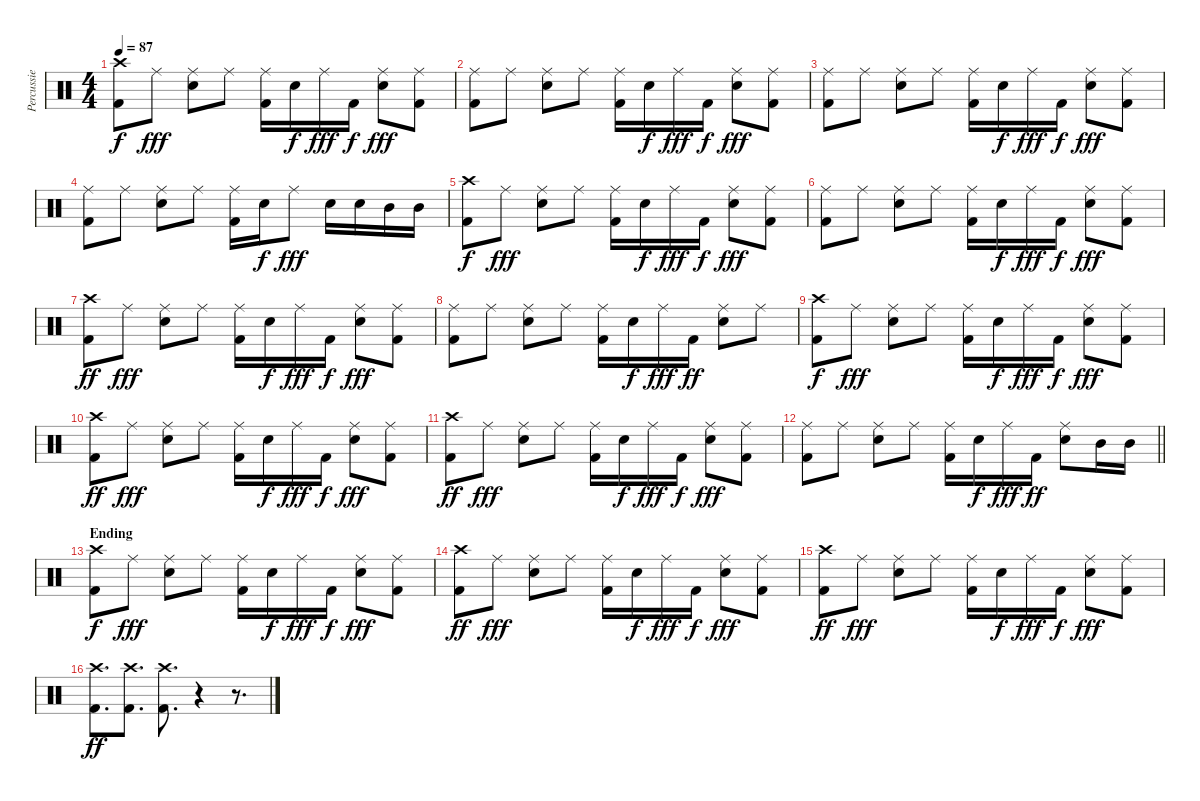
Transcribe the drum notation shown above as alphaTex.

\track ("Percussie" "Percussie") {instrument percussion}
\staff {score}
\articulation defaults
\ts (4 4)
\tempo 87
\clef neutral
\ks c
("Crash high (hit)" "Kick (hit) 2").8{dy f} "Ride (middle)".8{dy fff} ("Ride (middle)" "Snare (hit) 2").8 "Ride (middle)".8 ("Ride (middle)" "Kick (hit) 2").16 "Snare (hit) 2".16{dy f} "Ride (middle)".16{dy fff} "Kick (hit) 2".16{dy f} ("Ride (middle)" "Snare (hit) 2").8{dy fff} ("Ride (middle)" "Kick (hit) 2").8 |
("Ride (middle)" "Kick (hit) 2").8 "Ride (middle)".8 ("Ride (middle)" "Snare (hit) 2").8 "Ride (middle)".8 ("Ride (middle)" "Kick (hit) 2").16 "Snare (hit) 2".16{dy f} "Ride (middle)".16{dy fff} "Kick (hit) 2".16{dy f} ("Ride (middle)" "Snare (hit) 2").8{dy fff} ("Ride (middle)" "Kick (hit) 2").8 |
("Ride (middle)" "Kick (hit) 2").8 "Ride (middle)".8 ("Ride (middle)" "Snare (hit) 2").8 "Ride (middle)".8 ("Ride (middle)" "Kick (hit) 2").16 "Snare (hit) 2".16{dy f} "Ride (middle)".16{dy fff} "Kick (hit) 2".16{dy f} ("Ride (middle)" "Snare (hit) 2").8{dy fff} ("Ride (middle)" "Kick (hit) 2").8 |
("Ride (middle)" "Kick (hit) 2").8 "Ride (middle)".8 ("Ride (middle)" "Snare (hit) 2").8 "Ride (middle)".8 ("Ride (middle)" "Kick (hit) 2").16 "Snare (hit) 2".16{dy f} "Ride (middle)".8{dy fff} "Snare (hit) 2".16 "Snare (hit) 2".16 "Mid Tom (hit)".16 "Mid Tom (hit)".16 |
("Crash high (hit)" "Kick (hit) 2").8{dy f} "Ride (middle)".8{dy fff} ("Ride (middle)" "Snare (hit) 2").8 "Ride (middle)".8 ("Ride (middle)" "Kick (hit) 2").16 "Snare (hit) 2".16{dy f} "Ride (middle)".16{dy fff} "Kick (hit) 2".16{dy f} ("Ride (middle)" "Snare (hit) 2").8{dy fff} ("Ride (middle)" "Kick (hit) 2").8 |
("Ride (middle)" "Kick (hit) 2").8 "Ride (middle)".8 ("Ride (middle)" "Snare (hit) 2").8 "Ride (middle)".8 ("Ride (middle)" "Kick (hit) 2").16 "Snare (hit) 2".16{dy f} "Ride (middle)".16{dy fff} "Kick (hit) 2".16{dy f} ("Ride (middle)" "Snare (hit) 2").8{dy fff} ("Ride (middle)" "Kick (hit) 2").8 |
("Crash high (hit)" "Kick (hit) 2").8{dy ff} "Ride (middle)".8{dy fff} ("Ride (middle)" "Snare (hit) 2").8 "Ride (middle)".8 ("Ride (middle)" "Kick (hit) 2").16 "Snare (hit) 2".16{dy f} "Ride (middle)".16{dy fff} "Kick (hit) 2".16{dy f} ("Ride (middle)" "Snare (hit) 2").8{dy fff} ("Ride (middle)" "Kick (hit) 2").8 |
("Ride (middle)" "Kick (hit) 2").8 "Ride (middle)".8 ("Ride (middle)" "Snare (hit) 2").8 "Ride (middle)".8 ("Ride (middle)" "Kick (hit) 2").16 "Snare (hit) 2".16{dy f} "Ride (middle)".16{dy fff} "Kick (hit) 2".16{dy ff} ("Ride (middle)" "Snare (hit) 2").8 "Ride (middle)".8 |
("Crash high (hit)" "Kick (hit) 2").8{dy f} "Ride (middle)".8{dy fff} ("Ride (middle)" "Snare (hit) 2").8 "Ride (middle)".8 ("Ride (middle)" "Kick (hit) 2").16 "Snare (hit) 2".16{dy f} "Ride (middle)".16{dy fff} "Kick (hit) 2".16{dy f} ("Ride (middle)" "Snare (hit) 2").8{dy fff} ("Ride (middle)" "Kick (hit) 2").8 |
("Crash high (hit)" "Kick (hit) 2").8{dy ff} "Ride (middle)".8{dy fff} ("Ride (middle)" "Snare (hit) 2").8 "Ride (middle)".8 ("Ride (middle)" "Kick (hit) 2").16 "Snare (hit) 2".16{dy f} "Ride (middle)".16{dy fff} "Kick (hit) 2".16{dy f} ("Ride (middle)" "Snare (hit) 2").8{dy fff} ("Ride (middle)" "Kick (hit) 2").8 |
("Crash high (hit)" "Kick (hit) 2").8{dy ff} "Ride (middle)".8{dy fff} ("Ride (middle)" "Snare (hit) 2").8 "Ride (middle)".8 ("Ride (middle)" "Kick (hit) 2").16 "Snare (hit) 2".16{dy f} "Ride (middle)".16{dy fff} "Kick (hit) 2".16{dy f} ("Ride (middle)" "Snare (hit) 2").8{dy fff} ("Ride (middle)" "Kick (hit) 2").8 |
\barLineRight lightlight
("Ride (middle)" "Kick (hit) 2").8 "Ride (middle)".8 ("Ride (middle)" "Snare (hit) 2").8 "Ride (middle)".8 ("Ride (middle)" "Kick (hit) 2").16 "Snare (hit) 2".16{dy f} "Ride (middle)".16{dy fff} "Kick (hit) 2".16{dy ff} ("Ride (middle)" "Snare (hit) 2").8 "Mid Tom (hit)".16 "Mid Tom (hit)".16 |
\section ("" "Ending")
("Crash high (hit)" "Kick (hit) 2").8{dy f} "Ride (middle)".8{dy fff} ("Ride (middle)" "Snare (hit) 2").8 "Ride (middle)".8 ("Ride (middle)" "Kick (hit) 2").16 "Snare (hit) 2".16{dy f} "Ride (middle)".16{dy fff} "Kick (hit) 2".16{dy f} ("Ride (middle)" "Snare (hit) 2").8{dy fff} ("Ride (middle)" "Kick (hit) 2").8 |
("Crash high (hit)" "Kick (hit) 2").8{dy ff} "Ride (middle)".8{dy fff} ("Ride (middle)" "Snare (hit) 2").8 "Ride (middle)".8 ("Ride (middle)" "Kick (hit) 2").16 "Snare (hit) 2".16{dy f} "Ride (middle)".16{dy fff} "Kick (hit) 2".16{dy f} ("Ride (middle)" "Snare (hit) 2").8{dy fff} ("Ride (middle)" "Kick (hit) 2").8 |
("Crash high (hit)" "Kick (hit) 2").8{dy ff} "Ride (middle)".8{dy fff} ("Ride (middle)" "Snare (hit) 2").8 "Ride (middle)".8 ("Ride (middle)" "Kick (hit) 2").16 "Snare (hit) 2".16{dy f} "Ride (middle)".16{dy fff} "Kick (hit) 2".16{dy f} ("Ride (middle)" "Snare (hit) 2").8{dy fff} ("Ride (middle)" "Kick (hit) 2").8 |
("Crash high (hit)" "Kick (hit) 2").8{d dy ff} ("Crash high (hit)" "Kick (hit) 2").8{d} ("Crash high (hit)" "Kick (hit) 2").8{d} r.4 r.8{d}
